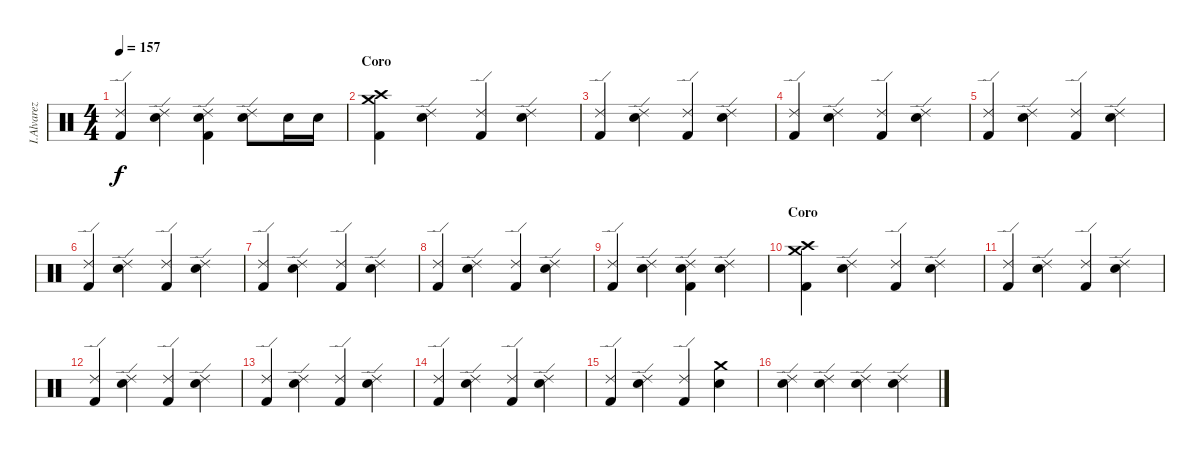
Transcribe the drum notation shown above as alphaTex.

\track ("I.Alvarez" "I.Alvarez") {instrument percussion}
\staff {score}
\articulation defaults
\ts (4 4)
\tempo 157
\clef neutral
\ks c
("Ride (edge) 2" "Kick (hit) 2").4{dy f} ("Ride (edge) 2" "Electric Snare (hit)").4 ("Ride (edge) 2" "Electric Snare (hit)" "Kick (hit) 2").4 ("Ride (edge) 2" "Electric Snare (hit)").8 "Electric Snare (hit)".16 "Electric Snare (hit)".16 |
\section ("" "Coro")
("Crash medium (hit)" "Crash high (hit)" "Kick (hit) 2").4 ("Ride (edge) 2" "Electric Snare (hit)").4 ("Ride (edge) 2" "Kick (hit) 2").4 ("Ride (edge) 2" "Electric Snare (hit)").4 |
("Ride (edge) 2" "Kick (hit) 2").4 ("Ride (edge) 2" "Electric Snare (hit)").4 ("Ride (edge) 2" "Kick (hit) 2").4 ("Ride (edge) 2" "Electric Snare (hit)").4 |
("Ride (edge) 2" "Kick (hit) 2").4 ("Ride (edge) 2" "Electric Snare (hit)").4 ("Ride (edge) 2" "Kick (hit) 2").4 ("Ride (edge) 2" "Electric Snare (hit)").4 |
("Ride (edge) 2" "Kick (hit) 2").4 ("Ride (edge) 2" "Electric Snare (hit)").4 ("Ride (edge) 2" "Kick (hit) 2").4 ("Ride (edge) 2" "Electric Snare (hit)").4 |
("Ride (edge) 2" "Kick (hit) 2").4 ("Ride (edge) 2" "Electric Snare (hit)").4 ("Ride (edge) 2" "Kick (hit) 2").4 ("Ride (edge) 2" "Electric Snare (hit)").4 |
("Ride (edge) 2" "Kick (hit) 2").4 ("Ride (edge) 2" "Electric Snare (hit)").4 ("Ride (edge) 2" "Kick (hit) 2").4 ("Ride (edge) 2" "Electric Snare (hit)").4 |
("Ride (edge) 2" "Kick (hit) 2").4 ("Ride (edge) 2" "Electric Snare (hit)").4 ("Ride (edge) 2" "Kick (hit) 2").4 ("Ride (edge) 2" "Electric Snare (hit)").4 |
("Ride (edge) 2" "Kick (hit) 2").4 ("Ride (edge) 2" "Electric Snare (hit)").4 ("Ride (edge) 2" "Electric Snare (hit)" "Kick (hit) 2").4 ("Ride (edge) 2" "Electric Snare (hit)").4 |
\section ("" "Coro")
("Crash medium (hit)" "Crash high (hit)" "Kick (hit) 2").4 ("Ride (edge) 2" "Electric Snare (hit)").4 ("Ride (edge) 2" "Kick (hit) 2").4 ("Ride (edge) 2" "Electric Snare (hit)").4 |
("Ride (edge) 2" "Kick (hit) 2").4 ("Ride (edge) 2" "Electric Snare (hit)").4 ("Ride (edge) 2" "Kick (hit) 2").4 ("Ride (edge) 2" "Electric Snare (hit)").4 |
("Ride (edge) 2" "Kick (hit) 2").4 ("Ride (edge) 2" "Electric Snare (hit)").4 ("Ride (edge) 2" "Kick (hit) 2").4 ("Ride (edge) 2" "Electric Snare (hit)").4 |
("Ride (edge) 2" "Kick (hit) 2").4 ("Ride (edge) 2" "Electric Snare (hit)").4 ("Ride (edge) 2" "Kick (hit) 2").4 ("Ride (edge) 2" "Electric Snare (hit)").4 |
("Ride (edge) 2" "Kick (hit) 2").4 ("Ride (edge) 2" "Electric Snare (hit)").4 ("Ride (edge) 2" "Kick (hit) 2").4 ("Ride (edge) 2" "Electric Snare (hit)").4 |
("Ride (edge) 2" "Kick (hit) 2").4 ("Ride (edge) 2" "Electric Snare (hit)").4 ("Ride (edge) 2" "Kick (hit) 2").4 ("Crash medium (hit)" "Electric Snare (hit)").4 |
("Ride (edge) 2" "Electric Snare (hit)").4 ("Ride (edge) 2" "Electric Snare (hit)").4 ("Ride (edge) 2" "Electric Snare (hit)").4 ("Ride (edge) 2" "Electric Snare (hit)").4
